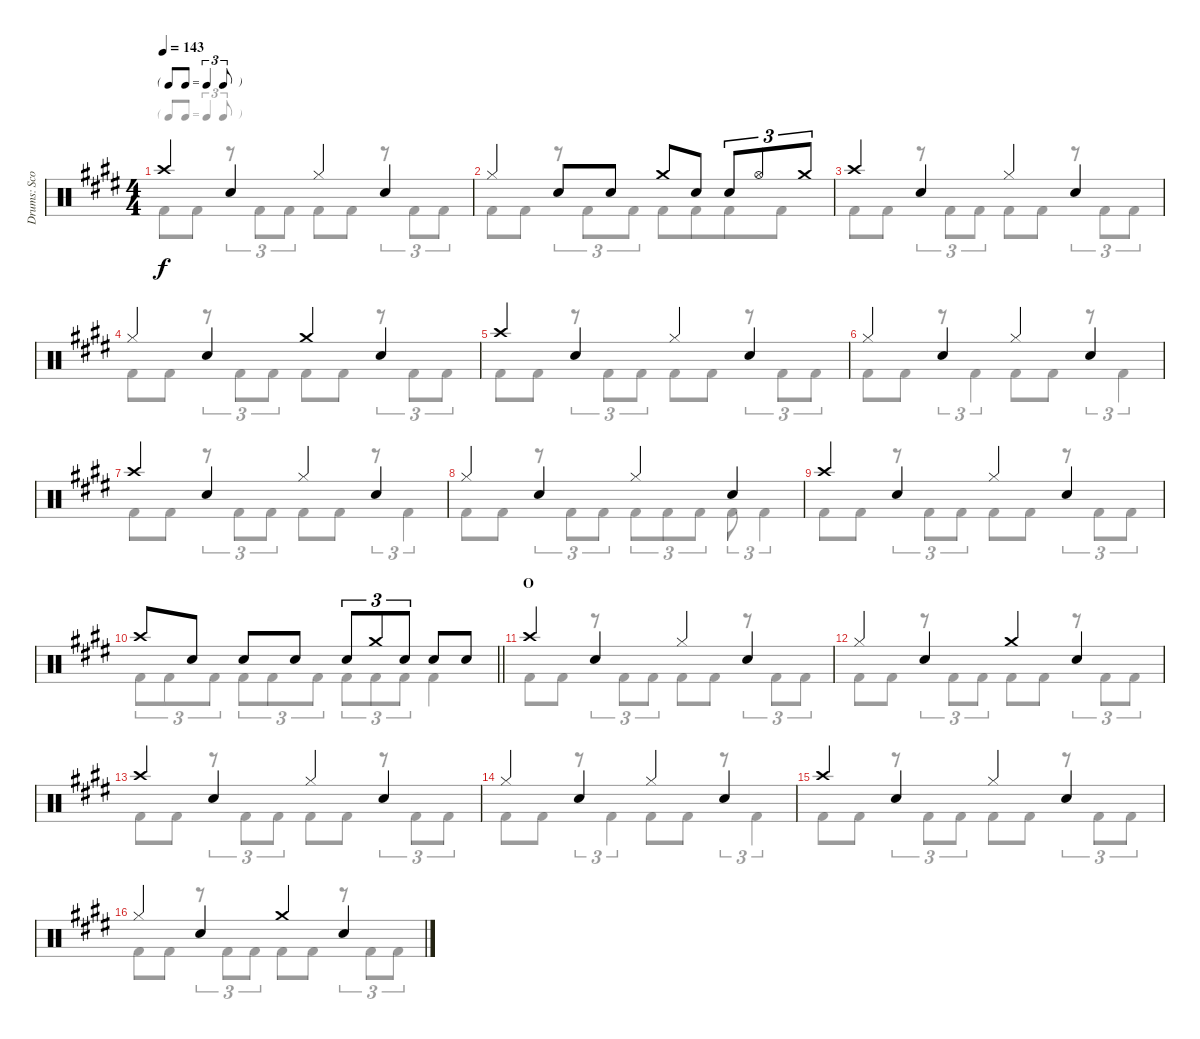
\track ("Drums: Scott" "Drums: Sco") {instrument percussion}
\staff {score}
\articulation defaults
\voice
\ts (4 4)
\tf triplet8th
\tempo 143
\clef neutral
\ks e "Crash high (hit)".4{dy f} "Snare (hit) 2".4 "Hi-Hat (closed)".4 "Snare (hit) 2".4
|
"Hi-Hat (closed)".4 "Snare (hit) 2".8 "Electric Snare (hit)".8 "Crash medium (hit)".8 "Snare (hit) 2".8 "Snare (hit) 2".8{tu (3 2)} "Hi-Hat (open)".8{tu (3 2)} "Crash medium (hit)".8{tu (3 2)} |
"Crash high (hit)".4 "Snare (hit) 2".4 "Hi-Hat (closed)".4 "Snare (hit) 2".4 |
"Hi-Hat (closed)".4 "Snare (hit) 2".4 "Crash medium (hit)".4 "Snare (hit) 2".4 |
"Crash high (hit)".4 "Snare (hit) 2".4 "Hi-Hat (closed)".4 "Snare (hit) 2".4 |
"Hi-Hat (closed)".4 "Snare (hit) 2".4 "Hi-Hat (closed)".4 "Snare (hit) 2".4 |
"Crash high (hit)".4 "Snare (hit) 2".4 "Hi-Hat (closed)".4 "Snare (hit) 2".4 |
"Hi-Hat (closed)".4 "Snare (hit) 2".4 "Hi-Hat (closed)".4 "Snare (hit) 2".4 |
"Crash high (hit)".4 "Snare (hit) 2".4 "Hi-Hat (closed)".4 "Snare (hit) 2".4 |
\barLineRight lightlight "Crash high (hit)".8 "Electric Snare (hit)".8 "Electric Snare (hit)".8 "Electric Snare (hit)".8 "Snare (hit) 2".8{tu (3 2)} "Crash medium (hit)".8{tu (3 2)} "Electric Snare (hit)".8{tu (3 2)} "Snare (hit) 2".8 "Snare (hit) 2".8
|
\section ("" "O")
"Crash high (hit)".4 "Snare (hit) 2".4 "Hi-Hat (closed)".4 "Snare (hit) 2".4 |
"Hi-Hat (closed)".4 "Snare (hit) 2".4 "Crash medium (hit)".4 "Snare (hit) 2".4 |
"Crash high (hit)".4 "Snare (hit) 2".4 "Hi-Hat (closed)".4 "Snare (hit) 2".4 |
"Hi-Hat (closed)".4 "Snare (hit) 2".4 "Hi-Hat (closed)".4 "Snare (hit) 2".4 |
"Crash high (hit)".4 "Snare (hit) 2".4 "Hi-Hat (closed)".4 "Snare (hit) 2".4 |
"Hi-Hat (closed)".4 "Snare (hit) 2".4 "Crash medium (hit)".4 "Snare (hit) 2".4
\voice
\clef neutral
\ottava regular
\simile none
\ks e "Kick (hit) 2".8{dy f} "Kick (hit) 2".8
r.8{tu (3 2)} "Kick (hit) 2".8{tu (3 2)} "Kick (hit) 2".8{tu (3 2)} "Kick (hit) 2".8 "Kick (hit) 2".8 r.8{tu (3 2)} "Kick (hit) 2".8{tu (3 2)} "Kick (hit) 2".8{tu (3 2)} |
"Kick (hit) 2".8 "Kick (hit) 2".8 r.8{tu (3 2)} "Kick (hit) 2".8{tu (3 2)} "Kick (hit) 2".8{tu (3 2)} "Kick (hit) 2".8 "Kick (hit) 2".8{beam merge} "Kick (hit) 2".8 "Kick (hit) 2".8 |
"Kick (hit) 2".8 "Kick (hit) 2".8 r.8{tu (3 2)} "Kick (hit) 2".8{tu (3 2)} "Kick (hit) 2".8{tu (3 2)} "Kick (hit) 2".8 "Kick (hit) 2".8 r.8{tu (3 2)} "Kick (hit) 2".8{tu (3 2)} "Kick (hit) 2".8{tu (3 2)} |
"Kick (hit) 2".8 "Kick (hit) 2".8 r.8{tu (3 2)} "Kick (hit) 2".8{tu (3 2)} "Kick (hit) 2".8{tu (3 2)} "Kick (hit) 2".8 "Kick (hit) 2".8 r.8{tu (3 2)} "Kick (hit) 2".8{tu (3 2)} "Kick (hit) 2".8{tu (3 2)} |
"Kick (hit) 2".8 "Kick (hit) 2".8 r.8{tu (3 2)} "Kick (hit) 2".8{tu (3 2)} "Kick (hit) 2".8{tu (3 2)} "Kick (hit) 2".8 "Kick (hit) 2".8 r.8{tu (3 2)} "Kick (hit) 2".8{tu (3 2)} "Kick (hit) 2".8{tu (3 2)} |
"Kick (hit) 2".8 "Kick (hit) 2".8 r.8{tu (3 2)} "Kick (hit) 2".4{tu (3 2)} "Kick (hit) 2".8 "Kick (hit) 2".8 r.8{tu (3 2)} "Kick (hit) 2".4{tu (3 2)} |
"Kick (hit) 2".8 "Kick (hit) 2".8 r.8{tu (3 2)} "Kick (hit) 2".8{tu (3 2)} "Kick (hit) 2".8{tu (3 2)} "Kick (hit) 2".8 "Kick (hit) 2".8 r.8{tu (3 2)} "Kick (hit) 2".4{tu (3 2)} |
"Kick (hit) 2".8 "Kick (hit) 2".8 r.8{tu (3 2)} "Kick (hit) 2".8{tu (3 2)} "Kick (hit) 2".8{tu (3 2)} "Kick (hit) 2".8{tu (3 2)} "Kick (hit) 2".8{tu (3 2)} "Kick (hit) 2".8{tu (3 2)} "Kick (hit) 2".8{tu (3 2)} "Kick (hit) 2".4{tu (3 2)} |
"Kick (hit) 2".8 "Kick (hit) 2".8 r.8{tu (3 2)} "Kick (hit) 2".8{tu (3 2)} "Kick (hit) 2".8{tu (3 2)} "Kick (hit) 2".8 "Kick (hit) 2".8 r.8{tu (3 2)} "Kick (hit) 2".8{tu (3 2)} "Kick (hit) 2".8{tu (3 2)} |
\barLineRight lightlight "Kick (hit) 2".8{tu (3 2)} "Kick (hit) 2".8{tu (3 2)} "Kick (hit) 2".8{tu (3 2)} "Kick (hit) 2".8{tu (3 2)} "Kick (hit) 2".8{tu (3 2)} "Kick (hit) 2".8{tu (3 2)} "Kick (hit) 2".8{tu (3 2) beam merge} "Kick (hit) 2".8{tu (3 2)} "Kick (hit) 2".8{tu (3 2)} "Kick (hit) 2".4
|
"Kick (hit) 2".8 "Kick (hit) 2".8 r.8{tu (3 2)} "Kick (hit) 2".8{tu (3 2)} "Kick (hit) 2".8{tu (3 2)} "Kick (hit) 2".8 "Kick (hit) 2".8 r.8{tu (3 2)} "Kick (hit) 2".8{tu (3 2)} "Kick (hit) 2".8{tu (3 2)} |
"Kick (hit) 2".8 "Kick (hit) 2".8 r.8{tu (3 2)} "Kick (hit) 2".8{tu (3 2)} "Kick (hit) 2".8{tu (3 2)} "Kick (hit) 2".8 "Kick (hit) 2".8 r.8{tu (3 2)} "Kick (hit) 2".8{tu (3 2)} "Kick (hit) 2".8{tu (3 2)} |
"Kick (hit) 2".8 "Kick (hit) 2".8 r.8{tu (3 2)} "Kick (hit) 2".8{tu (3 2)} "Kick (hit) 2".8{tu (3 2)} "Kick (hit) 2".8 "Kick (hit) 2".8 r.8{tu (3 2)} "Kick (hit) 2".8{tu (3 2)} "Kick (hit) 2".8{tu (3 2)} |
"Kick (hit) 2".8 "Kick (hit) 2".8 r.8{tu (3 2)} "Kick (hit) 2".4{tu (3 2)} "Kick (hit) 2".8 "Kick (hit) 2".8 r.8{tu (3 2)} "Kick (hit) 2".4{tu (3 2)} |
"Kick (hit) 2".8 "Kick (hit) 2".8 r.8{tu (3 2)} "Kick (hit) 2".8{tu (3 2)} "Kick (hit) 2".8{tu (3 2)} "Kick (hit) 2".8 "Kick (hit) 2".8 r.8{tu (3 2)} "Kick (hit) 2".8{tu (3 2)} "Kick (hit) 2".8{tu (3 2)} |
"Kick (hit) 2".8 "Kick (hit) 2".8 r.8{tu (3 2)} "Kick (hit) 2".8{tu (3 2)} "Kick (hit) 2".8{tu (3 2)} "Kick (hit) 2".8 "Kick (hit) 2".8 r.8{tu (3 2)} "Kick (hit) 2".8{tu (3 2)} "Kick (hit) 2".8{tu (3 2)}
